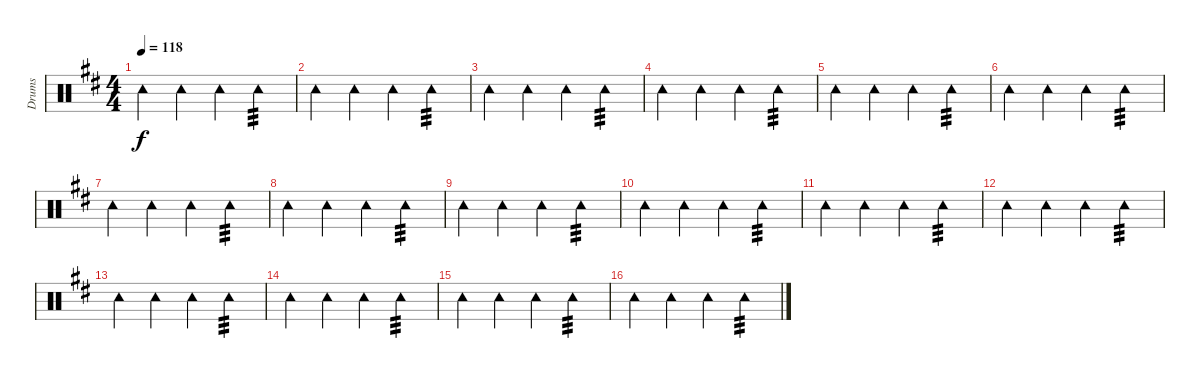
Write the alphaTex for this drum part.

\track ("Drums" "Drums") {instrument percussion}
\staff {score}
\articulation defaults
\ts (4 4)
\tempo 118
\clef neutral
\ks d "Tambourine (hit)".4{dy f} "Tambourine (hit)".4 "Tambourine (hit)".4 "Tambourine (hit)".4{tp 3}
|
"Tambourine (hit)".4 "Tambourine (hit)".4 "Tambourine (hit)".4 "Tambourine (hit)".4{tp 3} |
"Tambourine (hit)".4 "Tambourine (hit)".4 "Tambourine (hit)".4 "Tambourine (hit)".4{tp 3} |
"Tambourine (hit)".4 "Tambourine (hit)".4 "Tambourine (hit)".4 "Tambourine (hit)".4{tp 3} |
"Tambourine (hit)".4 "Tambourine (hit)".4 "Tambourine (hit)".4 "Tambourine (hit)".4{tp 3} |
"Tambourine (hit)".4 "Tambourine (hit)".4 "Tambourine (hit)".4 "Tambourine (hit)".4{tp 3} |
"Tambourine (hit)".4 "Tambourine (hit)".4 "Tambourine (hit)".4 "Tambourine (hit)".4{tp 3} |
"Tambourine (hit)".4 "Tambourine (hit)".4 "Tambourine (hit)".4 "Tambourine (hit)".4{tp 3} |
"Tambourine (hit)".4 "Tambourine (hit)".4 "Tambourine (hit)".4 "Tambourine (hit)".4{tp 3} |
"Tambourine (hit)".4 "Tambourine (hit)".4 "Tambourine (hit)".4 "Tambourine (hit)".4{tp 3} |
"Tambourine (hit)".4 "Tambourine (hit)".4 "Tambourine (hit)".4 "Tambourine (hit)".4{tp 3} |
"Tambourine (hit)".4 "Tambourine (hit)".4 "Tambourine (hit)".4 "Tambourine (hit)".4{tp 3} |
"Tambourine (hit)".4 "Tambourine (hit)".4 "Tambourine (hit)".4 "Tambourine (hit)".4{tp 3} |
"Tambourine (hit)".4 "Tambourine (hit)".4 "Tambourine (hit)".4 "Tambourine (hit)".4{tp 3} |
"Tambourine (hit)".4 "Tambourine (hit)".4 "Tambourine (hit)".4 "Tambourine (hit)".4{tp 3} |
"Tambourine (hit)".4 "Tambourine (hit)".4 "Tambourine (hit)".4 "Tambourine (hit)".4{tp 3}
